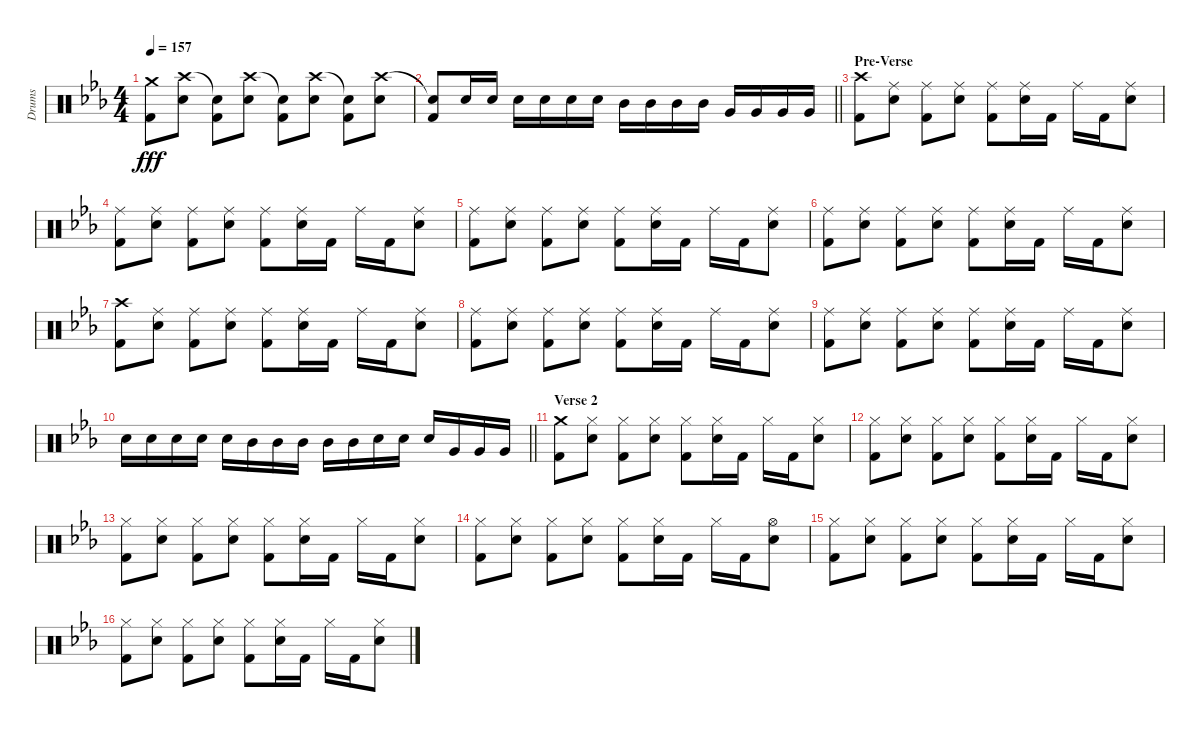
\track ("Drums" "Drums") {instrument percussion}
\staff {score}
\articulation defaults
\ts (4 4)
\tempo 157
\clef neutral
\ks eb
("Crash medium (hit)" "Kick (hit) 2").8{dy fff} ("Crash high (hit)" "Snare (hit) 2").8 ("Snare (hit)"{t} "Kick (hit) 2").8 ("Crash high (hit)" "Snare (hit) 2").8 ("Snare (hit)"{t} "Kick (hit) 2").8 ("Crash high (hit)" "Snare (hit) 2").8 ("Snare (hit)"{t} "Kick (hit) 2").8 ("Crash high (hit)" "Snare (hit) 2").8 |
\barLineRight lightlight
("Snare (hit)"{t} "Kick (hit) 2").8 "Snare (hit) 2".16 "Snare (hit) 2".16 "Snare (hit) 2".16 "Snare (hit) 2".16 "Snare (hit) 2".16 "Snare (hit) 2".16 "Mid Tom (hit)".16 "Mid Tom (hit)".16 "Mid Tom (hit)".16 "Mid Tom (hit)".16 "Very Low Tom (hit)".16 "Very Low Tom (hit)".16 "Very Low Tom (hit)".16 "Very Low Tom (hit)".16 |
\section ("" "Pre-Verse")
("Crash high (hit)" "Kick (hit) 2").8 ("Ride (middle)" "Snare (hit) 2").8 ("Ride (middle)" "Kick (hit) 2").8 ("Ride (middle)" "Snare (hit) 2").8 ("Ride (middle)" "Kick (hit) 2").8 ("Ride (middle)" "Snare (hit) 2").16 "Kick (hit) 2".16 "Ride (middle)".16 "Kick (hit) 2".16 ("Ride (middle)" "Snare (hit) 2").8 |
("Ride (middle)" "Kick (hit) 2").8 ("Ride (middle)" "Snare (hit) 2").8 ("Ride (middle)" "Kick (hit) 2").8 ("Ride (middle)" "Snare (hit) 2").8 ("Ride (middle)" "Kick (hit) 2").8 ("Ride (middle)" "Snare (hit) 2").16 "Kick (hit) 2".16 "Ride (middle)".16 "Kick (hit) 2".16 ("Ride (middle)" "Snare (hit) 2").8 |
("Ride (middle)" "Kick (hit) 2").8 ("Ride (middle)" "Snare (hit) 2").8 ("Ride (middle)" "Kick (hit) 2").8 ("Ride (middle)" "Snare (hit) 2").8 ("Ride (middle)" "Kick (hit) 2").8 ("Ride (middle)" "Snare (hit) 2").16 "Kick (hit) 2".16 "Ride (middle)".16 "Kick (hit) 2".16 ("Ride (middle)" "Snare (hit) 2").8 |
("Ride (middle)" "Kick (hit) 2").8 ("Ride (middle)" "Snare (hit) 2").8 ("Ride (middle)" "Kick (hit) 2").8 ("Ride (middle)" "Snare (hit) 2").8 ("Ride (middle)" "Kick (hit) 2").8 ("Ride (middle)" "Snare (hit) 2").16 "Kick (hit) 2".16 "Ride (middle)".16 "Kick (hit) 2".16 ("Ride (middle)" "Snare (hit) 2").8 |
("Crash high (hit)" "Kick (hit) 2").8 ("Ride (middle)" "Snare (hit) 2").8 ("Ride (middle)" "Kick (hit) 2").8 ("Ride (middle)" "Snare (hit) 2").8 ("Ride (middle)" "Kick (hit) 2").8 ("Ride (middle)" "Snare (hit) 2").16 "Kick (hit) 2".16 "Ride (middle)".16 "Kick (hit) 2".16 ("Ride (middle)" "Snare (hit) 2").8 |
("Ride (middle)" "Kick (hit) 2").8 ("Ride (middle)" "Snare (hit) 2").8 ("Ride (middle)" "Kick (hit) 2").8 ("Ride (middle)" "Snare (hit) 2").8 ("Ride (middle)" "Kick (hit) 2").8 ("Ride (middle)" "Snare (hit) 2").16 "Kick (hit) 2".16 "Ride (middle)".16 "Kick (hit) 2".16 ("Ride (middle)" "Snare (hit) 2").8 |
("Ride (middle)" "Kick (hit) 2").8 ("Ride (middle)" "Snare (hit) 2").8 ("Ride (middle)" "Kick (hit) 2").8 ("Ride (middle)" "Snare (hit) 2").8 ("Ride (middle)" "Kick (hit) 2").8 ("Ride (middle)" "Snare (hit) 2").16 "Kick (hit) 2".16 "Ride (middle)".16 "Kick (hit) 2".16 ("Ride (middle)" "Snare (hit) 2").8 |
\barLineRight lightlight "Snare (hit) 2".16 "Snare (hit) 2".16 "Snare (hit) 2".16 "Snare (hit) 2".16 "Snare (hit) 2".16 "Mid Tom (hit)".16 "Mid Tom (hit)".16 "Mid Tom (hit)".16 "Mid Tom (hit)".16 "Mid Tom (hit)".16 "Snare (hit) 2".16 "Snare (hit) 2".16 "Snare (hit) 2".16 "Very Low Tom (hit)".16 "Very Low Tom (hit)".16 "Very Low Tom (hit)".16
|
\section ("" "Verse 2")
("Crash medium (hit)" "Kick (hit) 2").8 ("Hi-Hat (closed)" "Snare (hit) 2").8 ("Hi-Hat (closed)" "Kick (hit) 2").8 ("Hi-Hat (closed)" "Snare (hit) 2").8 ("Hi-Hat (closed)" "Kick (hit) 2").8 ("Hi-Hat (closed)" "Snare (hit) 2").16 "Kick (hit) 2".16 "Hi-Hat (closed)".16 "Kick (hit) 2".16 ("Hi-Hat (closed)" "Snare (hit) 2").8 |
("Hi-Hat (closed)" "Kick (hit) 2").8 ("Hi-Hat (closed)" "Snare (hit) 2").8 ("Hi-Hat (closed)" "Kick (hit) 2").8 ("Hi-Hat (closed)" "Snare (hit) 2").8 ("Hi-Hat (closed)" "Kick (hit) 2").8 ("Hi-Hat (closed)" "Snare (hit) 2").16 "Kick (hit) 2".16 "Hi-Hat (closed)".16 "Kick (hit) 2".16 ("Hi-Hat (closed)" "Snare (hit) 2").8 |
("Hi-Hat (closed)" "Kick (hit) 2").8 ("Hi-Hat (closed)" "Snare (hit) 2").8 ("Hi-Hat (closed)" "Kick (hit) 2").8 ("Hi-Hat (closed)" "Snare (hit) 2").8 ("Hi-Hat (closed)" "Kick (hit) 2").8 ("Hi-Hat (closed)" "Snare (hit) 2").16 "Kick (hit) 2".16 "Hi-Hat (closed)".16 "Kick (hit) 2".16 ("Hi-Hat (closed)" "Snare (hit) 2").8 |
("Hi-Hat (closed)" "Kick (hit) 2").8 ("Hi-Hat (closed)" "Snare (hit) 2").8 ("Hi-Hat (closed)" "Kick (hit) 2").8 ("Hi-Hat (closed)" "Snare (hit) 2").8 ("Hi-Hat (closed)" "Kick (hit) 2").8 ("Hi-Hat (closed)" "Snare (hit) 2").16 "Kick (hit) 2".16 "Hi-Hat (closed)".16 "Kick (hit) 2".16 ("Hi-Hat (open)" "Snare (hit) 2").8 |
("Hi-Hat (closed)" "Kick (hit) 2").8 ("Hi-Hat (closed)" "Snare (hit) 2").8 ("Hi-Hat (closed)" "Kick (hit) 2").8 ("Hi-Hat (closed)" "Snare (hit) 2").8 ("Hi-Hat (closed)" "Kick (hit) 2").8 ("Hi-Hat (closed)" "Snare (hit) 2").16 "Kick (hit) 2".16 "Hi-Hat (closed)".16 "Kick (hit) 2".16 ("Hi-Hat (closed)" "Snare (hit) 2").8 |
("Hi-Hat (closed)" "Kick (hit) 2").8 ("Hi-Hat (closed)" "Snare (hit) 2").8 ("Hi-Hat (closed)" "Kick (hit) 2").8 ("Hi-Hat (closed)" "Snare (hit) 2").8 ("Hi-Hat (closed)" "Kick (hit) 2").8 ("Hi-Hat (closed)" "Snare (hit) 2").16 "Kick (hit) 2".16 "Hi-Hat (closed)".16 "Kick (hit) 2".16 ("Hi-Hat (closed)" "Snare (hit) 2").8
